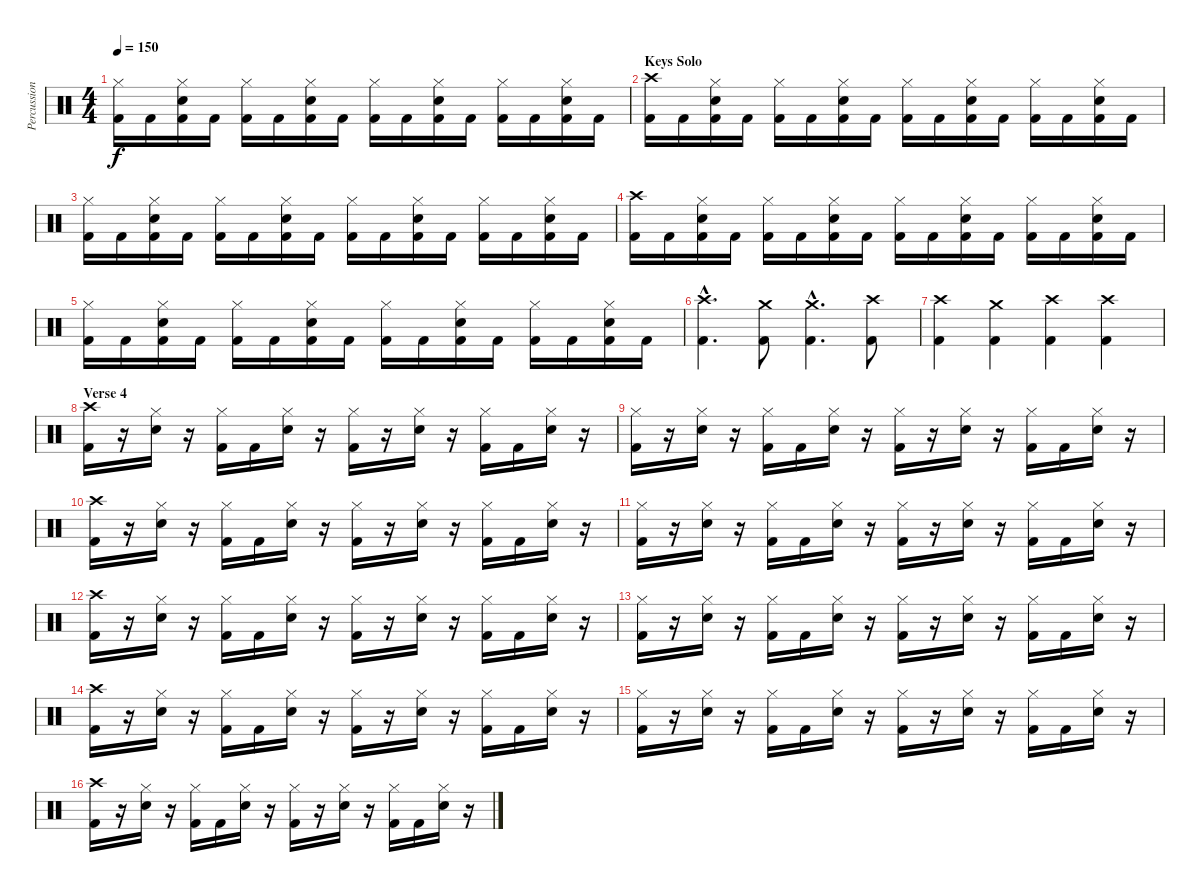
\track ("Percussion" "Percussion") {instrument percussion}
\staff {score}
\articulation defaults
\ts (4 4)
\tempo 150
\clef neutral
\ks c
("Hi-Hat (closed)" "Kick (hit) 2").16{dy f} "Kick (hit) 2".16 ("Hi-Hat (closed)" "Snare (hit) 2" "Kick (hit) 2").16 "Kick (hit) 2".16 ("Hi-Hat (closed)" "Kick (hit) 2").16 "Kick (hit) 2".16 ("Hi-Hat (closed)" "Snare (hit) 2" "Kick (hit) 2").16 "Kick (hit) 2".16 ("Hi-Hat (closed)" "Kick (hit) 2").16 "Kick (hit) 2".16 ("Hi-Hat (closed)" "Snare (hit) 2" "Kick (hit) 2").16 "Kick (hit) 2".16 ("Hi-Hat (closed)" "Kick (hit) 2").16 "Kick (hit) 2".16 ("Hi-Hat (closed)" "Snare (hit) 2" "Kick (hit) 2").16 "Kick (hit) 2".16 |
\section ("" "Keys Solo")
("Crash high (hit)" "Kick (hit) 2").16 "Kick (hit) 2".16 ("Hi-Hat (closed)" "Snare (hit) 2" "Kick (hit) 2").16 "Kick (hit) 2".16 ("Hi-Hat (closed)" "Kick (hit) 2").16 "Kick (hit) 2".16 ("Hi-Hat (closed)" "Snare (hit) 2" "Kick (hit) 2").16 "Kick (hit) 2".16 ("Hi-Hat (closed)" "Kick (hit) 2").16 "Kick (hit) 2".16 ("Hi-Hat (closed)" "Snare (hit) 2" "Kick (hit) 2").16 "Kick (hit) 2".16 ("Hi-Hat (closed)" "Kick (hit) 2").16 "Kick (hit) 2".16 ("Hi-Hat (closed)" "Snare (hit) 2" "Kick (hit) 2").16 "Kick (hit) 2".16 |
("Hi-Hat (closed)" "Kick (hit) 2").16 "Kick (hit) 2".16 ("Hi-Hat (closed)" "Snare (hit) 2" "Kick (hit) 2").16 "Kick (hit) 2".16 ("Hi-Hat (closed)" "Kick (hit) 2").16 "Kick (hit) 2".16 ("Hi-Hat (closed)" "Snare (hit) 2" "Kick (hit) 2").16 "Kick (hit) 2".16 ("Hi-Hat (closed)" "Kick (hit) 2").16 "Kick (hit) 2".16 ("Hi-Hat (closed)" "Snare (hit) 2" "Kick (hit) 2").16 "Kick (hit) 2".16 ("Hi-Hat (closed)" "Kick (hit) 2").16 "Kick (hit) 2".16 ("Hi-Hat (closed)" "Snare (hit) 2" "Kick (hit) 2").16 "Kick (hit) 2".16 |
("Crash high (hit)" "Kick (hit) 2").16 "Kick (hit) 2".16 ("Hi-Hat (closed)" "Snare (hit) 2" "Kick (hit) 2").16 "Kick (hit) 2".16 ("Hi-Hat (closed)" "Kick (hit) 2").16 "Kick (hit) 2".16 ("Hi-Hat (closed)" "Snare (hit) 2" "Kick (hit) 2").16 "Kick (hit) 2".16 ("Hi-Hat (closed)" "Kick (hit) 2").16 "Kick (hit) 2".16 ("Hi-Hat (closed)" "Snare (hit) 2" "Kick (hit) 2").16 "Kick (hit) 2".16 ("Hi-Hat (closed)" "Kick (hit) 2").16 "Kick (hit) 2".16 ("Hi-Hat (closed)" "Snare (hit) 2" "Kick (hit) 2").16 "Kick (hit) 2".16 |
("Hi-Hat (closed)" "Kick (hit) 2").16 "Kick (hit) 2".16 ("Hi-Hat (closed)" "Snare (hit) 2" "Kick (hit) 2").16 "Kick (hit) 2".16 ("Hi-Hat (closed)" "Kick (hit) 2").16 "Kick (hit) 2".16 ("Hi-Hat (closed)" "Snare (hit) 2" "Kick (hit) 2").16 "Kick (hit) 2".16 ("Hi-Hat (closed)" "Kick (hit) 2").16 "Kick (hit) 2".16 ("Hi-Hat (closed)" "Snare (hit) 2" "Kick (hit) 2").16 "Kick (hit) 2".16 ("Hi-Hat (closed)" "Kick (hit) 2").16 "Kick (hit) 2".16 ("Hi-Hat (closed)" "Snare (hit) 2" "Kick (hit) 2").16 "Kick (hit) 2".16 |
("Crash high (hit)"{hac} "Kick (hit) 2"{hac}).4{d} ("Crash medium (hit)" "Kick (hit) 2").8 ("Crash medium (hit)"{hac} "Kick (hit) 2"{hac}).4{d} ("Crash high (hit)" "Kick (hit) 2").8 |
("Crash high (hit)" "Kick (hit) 2").4 ("Crash medium (hit)" "Kick (hit) 2").4 ("Crash high (hit)" "Kick (hit) 2").4 ("Crash high (hit)" "Kick (hit) 2").4 |
\section ("" "Verse 4")
("Crash high (hit)" "Kick (hit) 2").16 r.16 ("Hi-Hat (closed)" "Snare (hit) 2").16 r.16 ("Hi-Hat (closed)" "Kick (hit) 2").16 "Kick (hit) 2".16 ("Hi-Hat (closed)" "Snare (hit) 2").16 r.16 ("Hi-Hat (closed)" "Kick (hit) 2").16 r.16 ("Hi-Hat (closed)" "Snare (hit) 2").16 r.16 ("Hi-Hat (closed)" "Kick (hit) 2").16 "Kick (hit) 2".16 ("Hi-Hat (closed)" "Snare (hit) 2").16 r.16 |
("Hi-Hat (closed)" "Kick (hit) 2").16 r.16 ("Hi-Hat (closed)" "Snare (hit) 2").16 r.16 ("Hi-Hat (closed)" "Kick (hit) 2").16 "Kick (hit) 2".16 ("Hi-Hat (closed)" "Snare (hit) 2").16 r.16 ("Hi-Hat (closed)" "Kick (hit) 2").16 r.16 ("Hi-Hat (closed)" "Snare (hit) 2").16 r.16 ("Hi-Hat (closed)" "Kick (hit) 2").16 "Kick (hit) 2".16 ("Hi-Hat (closed)" "Snare (hit) 2").16 r.16 |
("Crash high (hit)" "Kick (hit) 2").16 r.16 ("Hi-Hat (closed)" "Snare (hit) 2").16 r.16 ("Hi-Hat (closed)" "Kick (hit) 2").16 "Kick (hit) 2".16 ("Hi-Hat (closed)" "Snare (hit) 2").16 r.16 ("Hi-Hat (closed)" "Kick (hit) 2").16 r.16 ("Hi-Hat (closed)" "Snare (hit) 2").16 r.16 ("Hi-Hat (closed)" "Kick (hit) 2").16 "Kick (hit) 2".16 ("Hi-Hat (closed)" "Snare (hit) 2").16 r.16 |
("Hi-Hat (closed)" "Kick (hit) 2").16 r.16 ("Hi-Hat (closed)" "Snare (hit) 2").16 r.16 ("Hi-Hat (closed)" "Kick (hit) 2").16 "Kick (hit) 2".16 ("Hi-Hat (closed)" "Snare (hit) 2").16 r.16 ("Hi-Hat (closed)" "Kick (hit) 2").16 r.16 ("Hi-Hat (closed)" "Snare (hit) 2").16 r.16 ("Hi-Hat (closed)" "Kick (hit) 2").16 "Kick (hit) 2".16 ("Hi-Hat (closed)" "Snare (hit) 2").16 r.16 |
("Crash high (hit)" "Kick (hit) 2").16 r.16 ("Hi-Hat (closed)" "Snare (hit) 2").16 r.16 ("Hi-Hat (closed)" "Kick (hit) 2").16 "Kick (hit) 2".16 ("Hi-Hat (closed)" "Snare (hit) 2").16 r.16 ("Hi-Hat (closed)" "Kick (hit) 2").16 r.16 ("Hi-Hat (closed)" "Snare (hit) 2").16 r.16 ("Hi-Hat (closed)" "Kick (hit) 2").16 "Kick (hit) 2".16 ("Hi-Hat (closed)" "Snare (hit) 2").16 r.16 |
("Hi-Hat (closed)" "Kick (hit) 2").16 r.16 ("Hi-Hat (closed)" "Snare (hit) 2").16 r.16 ("Hi-Hat (closed)" "Kick (hit) 2").16 "Kick (hit) 2".16 ("Hi-Hat (closed)" "Snare (hit) 2").16 r.16 ("Hi-Hat (closed)" "Kick (hit) 2").16 r.16 ("Hi-Hat (closed)" "Snare (hit) 2").16 r.16 ("Hi-Hat (closed)" "Kick (hit) 2").16 "Kick (hit) 2".16 ("Hi-Hat (closed)" "Snare (hit) 2").16 r.16 |
("Crash high (hit)" "Kick (hit) 2").16 r.16 ("Hi-Hat (closed)" "Snare (hit) 2").16 r.16 ("Hi-Hat (closed)" "Kick (hit) 2").16 "Kick (hit) 2".16 ("Hi-Hat (closed)" "Snare (hit) 2").16 r.16 ("Hi-Hat (closed)" "Kick (hit) 2").16 r.16 ("Hi-Hat (closed)" "Snare (hit) 2").16 r.16 ("Hi-Hat (closed)" "Kick (hit) 2").16 "Kick (hit) 2".16 ("Hi-Hat (closed)" "Snare (hit) 2").16 r.16 |
("Hi-Hat (closed)" "Kick (hit) 2").16 r.16 ("Hi-Hat (closed)" "Snare (hit) 2").16 r.16 ("Hi-Hat (closed)" "Kick (hit) 2").16 "Kick (hit) 2".16 ("Hi-Hat (closed)" "Snare (hit) 2").16 r.16 ("Hi-Hat (closed)" "Kick (hit) 2").16 r.16 ("Hi-Hat (closed)" "Snare (hit) 2").16 r.16 ("Hi-Hat (closed)" "Kick (hit) 2").16 "Kick (hit) 2".16 ("Hi-Hat (closed)" "Snare (hit) 2").16 r.16 |
("Crash high (hit)" "Kick (hit) 2").16 r.16 ("Hi-Hat (closed)" "Snare (hit) 2").16 r.16 ("Hi-Hat (closed)" "Kick (hit) 2").16 "Kick (hit) 2".16 ("Hi-Hat (closed)" "Snare (hit) 2").16 r.16 ("Hi-Hat (closed)" "Kick (hit) 2").16 r.16 ("Hi-Hat (closed)" "Snare (hit) 2").16 r.16 ("Hi-Hat (closed)" "Kick (hit) 2").16 "Kick (hit) 2".16 ("Hi-Hat (closed)" "Snare (hit) 2").16 r.16
